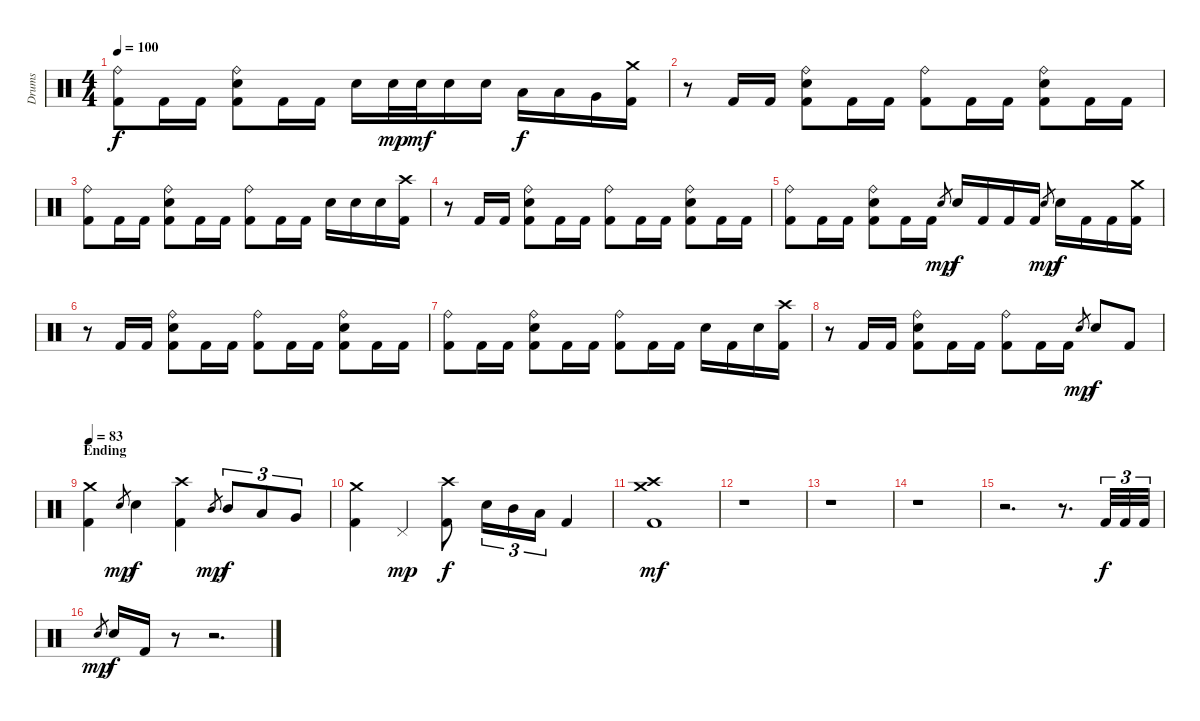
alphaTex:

\track ("Drums" "Drums") {instrument percussion}
\staff {score}
\articulation defaults
\ts (4 4)
\tempo 100
\clef neutral
\ks c
("Ride (bell)" "Kick (hit) 2").8{dy f} "Kick (hit) 2".16 "Kick (hit) 2".16 ("Ride (bell)" "Electric Snare (hit)" "Kick (hit) 2").8 "Kick (hit) 2".16 "Kick (hit) 2".16 "Electric Snare (hit)".16 "Electric Snare (hit)".32{dy mp} "Electric Snare (hit)".32{dy mf} "Electric Snare (hit)".16 "Electric Snare (hit)".16 "Low Tom (hit)".16{dy f} "Low Tom (hit)".16 "Very Low Tom (hit)".16 ("Crash medium (hit)" "Kick (hit) 2").16 |
r.8 "Kick (hit) 2".16 "Kick (hit) 2".16 ("Ride (bell)" "Electric Snare (hit)" "Kick (hit) 2").8 "Kick (hit) 2".16 "Kick (hit) 2".16 ("Ride (bell)" "Kick (hit) 2").8 "Kick (hit) 2".16 "Kick (hit) 2".16 ("Ride (bell)" "Electric Snare (hit)" "Kick (hit) 2").8 "Kick (hit) 2".16 "Kick (hit) 2".16 |
("Ride (bell)" "Kick (hit) 2").8 "Kick (hit) 2".16 "Kick (hit) 2".16 ("Ride (bell)" "Electric Snare (hit)" "Kick (hit) 2").8 "Kick (hit) 2".16 "Kick (hit) 2".16 ("Ride (bell)" "Kick (hit) 2").8 "Kick (hit) 2".16 "Kick (hit) 2".16 "Electric Snare (hit)".16 "Electric Snare (hit)".16 "Electric Snare (hit)".16 ("Crash high (hit)" "Kick (hit) 2").16 |
r.8 "Kick (hit) 2".16 "Kick (hit) 2".16 ("Ride (bell)" "Electric Snare (hit)" "Kick (hit) 2").8 "Kick (hit) 2".16 "Kick (hit) 2".16 ("Ride (bell)" "Kick (hit) 2").8 "Kick (hit) 2".16 "Kick (hit) 2".16 ("Ride (bell)" "Electric Snare (hit)" "Kick (hit) 2").8 "Kick (hit) 2".16 "Kick (hit) 2".16 |
("Ride (bell)" "Kick (hit) 2").8 "Kick (hit) 2".16 "Kick (hit) 2".16 ("Ride (bell)" "Electric Snare (hit)" "Kick (hit) 2").8 "Kick (hit) 2".16 "Kick (hit) 2".16 "Electric Snare (hit)".8{gr dy mp} "Electric Snare (hit)".16{dy f} "Kick (hit) 2".16 "Kick (hit) 2".16 "Kick (hit) 2".16 "Electric Snare (hit)".8{gr dy mp} "Electric Snare (hit)".16{dy f} "Kick (hit) 2".16 "Kick (hit) 2".16 ("Crash medium (hit)" "Kick (hit) 2").16 |
r.8 "Kick (hit) 2".16 "Kick (hit) 2".16 ("Ride (bell)" "Electric Snare (hit)" "Kick (hit) 2").8 "Kick (hit) 2".16 "Kick (hit) 2".16 ("Ride (bell)" "Kick (hit) 2").8 "Kick (hit) 2".16 "Kick (hit) 2".16 ("Ride (bell)" "Electric Snare (hit)" "Kick (hit) 2").8 "Kick (hit) 2".16 "Kick (hit) 2".16 |
("Ride (bell)" "Kick (hit) 2").8 "Kick (hit) 2".16 "Kick (hit) 2".16 ("Ride (bell)" "Electric Snare (hit)" "Kick (hit) 2").8 "Kick (hit) 2".16 "Kick (hit) 2".16 ("Ride (bell)" "Kick (hit) 2").8 "Kick (hit) 2".16 "Kick (hit) 2".16 "Electric Snare (hit)".16 "Kick (hit) 2".16 "Electric Snare (hit)".16 ("Crash high (hit)" "Kick (hit) 2").16 |
r.8 "Kick (hit) 2".16 "Kick (hit) 2".16 ("Ride (bell)" "Electric Snare (hit)" "Kick (hit) 2").8 "Kick (hit) 2".16 "Kick (hit) 2".16 ("Ride (bell)" "Kick (hit) 2").8 "Kick (hit) 2".16 "Kick (hit) 2".16 "Electric Snare (hit)".8{gr dy mp} "Electric Snare (hit)".8{dy f} "Kick (hit) 2".8 |
\section ("" "Ending")
\tempo 83
("Crash medium (hit)" "Kick (hit) 2").4 "Electric Snare (hit)".8{gr dy mp} "Electric Snare (hit)".4{dy f} ("Crash high (hit)" "Kick (hit) 2").4 "Mid Tom (hit)".8{gr dy mp} "Mid Tom (hit)".8{tu (3 2) dy f} "Low Tom (hit)".8{tu (3 2)} "Very Low Tom (hit)".8{tu (3 2)} |
("Crash medium (hit)" "Kick (hit) 2").4 "Pedal Hi-Hat (hit)".4{dy mp} ("Crash high (hit)" "Kick (hit) 2").8{dy f} "Electric Snare (hit)".16{tu (3 2)} "Mid Tom (hit)".16{tu (3 2)} "Low Tom (hit)".16{tu (3 2)} "Kick (hit) 2".4 |
("Crash medium (hit)" "Crash high (hit)" "Kick (hit) 2").1{dy mf} |
r.1 |
r.1 |
r.1 |
r.2{d} r.8{d} "Kick (hit) 2".32{tu (3 2) dy f} "Kick (hit) 2".32{tu (3 2)} "Kick (hit) 2".32{tu (3 2)} |
"Electric Snare (hit)".8{gr dy mp} "Electric Snare (hit)".16{dy f} "Kick (hit) 2".16 r.8 r.2{d}
